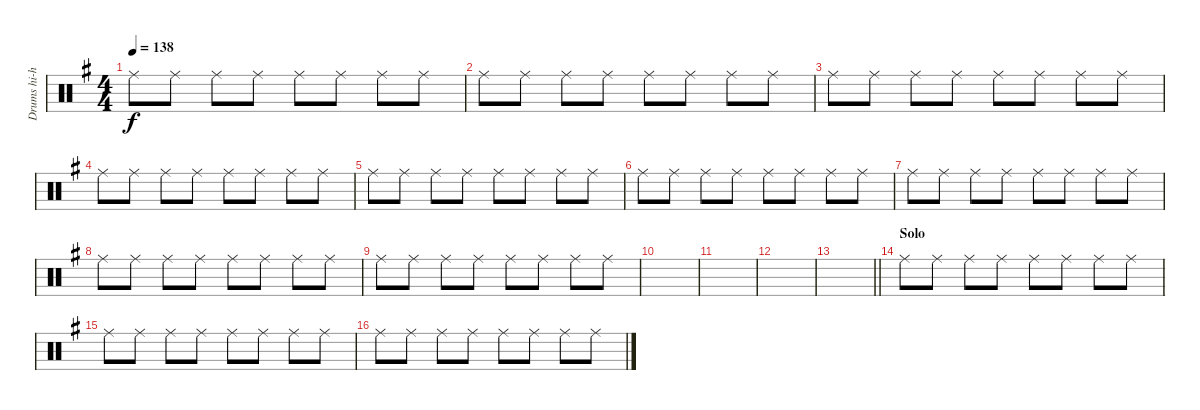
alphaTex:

\track ("Drums hi-hat" "Drums hi-h") {instrument percussion}
\staff {score}
\articulation defaults
\ts (4 4)
\tempo 138
\clef neutral
\ks g "Ride (middle)".8{dy f} "Ride (middle)".8 "Ride (middle)".8 "Ride (middle)".8 "Ride (middle)".8 "Ride (middle)".8 "Ride (middle)".8 "Ride (middle)".8
|
"Ride (middle)".8 "Ride (middle)".8 "Ride (middle)".8 "Ride (middle)".8 "Ride (middle)".8 "Ride (middle)".8 "Ride (middle)".8 "Ride (middle)".8 |
"Ride (middle)".8 "Ride (middle)".8 "Ride (middle)".8 "Ride (middle)".8 "Ride (middle)".8 "Ride (middle)".8 "Ride (middle)".8 "Ride (middle)".8 |
"Ride (middle)".8 "Ride (middle)".8 "Ride (middle)".8 "Ride (middle)".8 "Ride (middle)".8 "Ride (middle)".8 "Ride (middle)".8 "Ride (middle)".8 |
"Ride (middle)".8 "Ride (middle)".8 "Ride (middle)".8 "Ride (middle)".8 "Ride (middle)".8 "Ride (middle)".8 "Ride (middle)".8 "Ride (middle)".8 |
"Ride (middle)".8 "Ride (middle)".8 "Ride (middle)".8 "Ride (middle)".8 "Ride (middle)".8 "Ride (middle)".8 "Ride (middle)".8 "Ride (middle)".8 |
"Ride (middle)".8 "Ride (middle)".8 "Ride (middle)".8 "Ride (middle)".8 "Ride (middle)".8 "Ride (middle)".8 "Ride (middle)".8 "Ride (middle)".8 |
"Ride (middle)".8 "Ride (middle)".8 "Ride (middle)".8 "Ride (middle)".8 "Ride (middle)".8 "Ride (middle)".8 "Ride (middle)".8 "Ride (middle)".8 |
"Ride (middle)".8 "Ride (middle)".8 "Ride (middle)".8 "Ride (middle)".8 "Ride (middle)".8 "Ride (middle)".8 "Ride (middle)".8 "Ride (middle)".8 |
|
|
|
\barLineRight lightlight
|
\section ("" "Solo")
"Ride (middle)".8 "Ride (middle)".8 "Ride (middle)".8 "Ride (middle)".8 "Ride (middle)".8 "Ride (middle)".8 "Ride (middle)".8 "Ride (middle)".8 |
"Ride (middle)".8 "Ride (middle)".8 "Ride (middle)".8 "Ride (middle)".8 "Ride (middle)".8 "Ride (middle)".8 "Ride (middle)".8 "Ride (middle)".8 |
"Ride (middle)".8 "Ride (middle)".8 "Ride (middle)".8 "Ride (middle)".8 "Ride (middle)".8 "Ride (middle)".8 "Ride (middle)".8 "Ride (middle)".8
